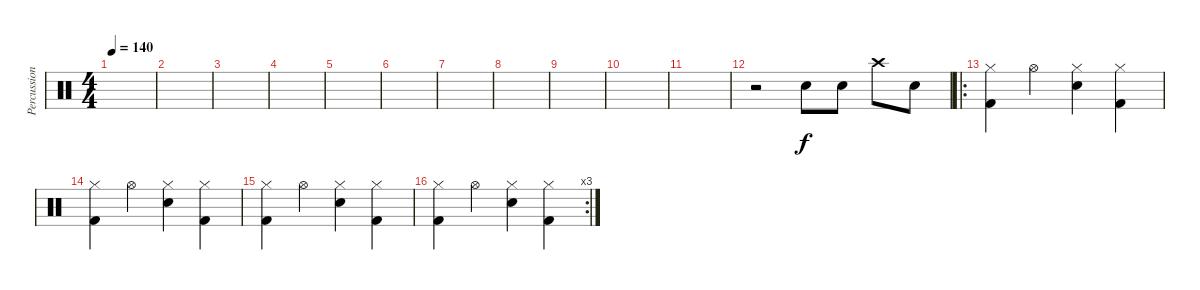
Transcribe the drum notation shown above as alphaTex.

\track ("Percussions" "Percussion") {instrument percussion}
\staff {score}
\articulation defaults
\ts (4 4)
\tempo 140
\clef neutral
\ks c
|
|
|
|
|
|
|
|
|
|
|
r.2 "Snare (hit) 2".8 "Snare (hit) 2".8 "Crash high (hit)".8 "Snare (hit) 2".8 |
\ro
("Hi-Hat (closed)" "Kick (hit) 2").4 "Hi-Hat (open)".4 ("Hi-Hat (closed)" "Snare (hit) 2").4 ("Hi-Hat (closed)" "Kick (hit) 2").4 |
("Hi-Hat (closed)" "Kick (hit) 2").4 "Hi-Hat (open)".4 ("Hi-Hat (closed)" "Snare (hit) 2").4 ("Hi-Hat (closed)" "Kick (hit) 2").4 |
("Hi-Hat (closed)" "Kick (hit) 2").4 "Hi-Hat (open)".4 ("Hi-Hat (closed)" "Snare (hit) 2").4 ("Hi-Hat (closed)" "Kick (hit) 2").4 |
\rc 3
("Hi-Hat (closed)" "Kick (hit) 2").4 "Hi-Hat (open)".4 ("Hi-Hat (closed)" "Snare (hit) 2").4 ("Hi-Hat (closed)" "Kick (hit) 2").4
